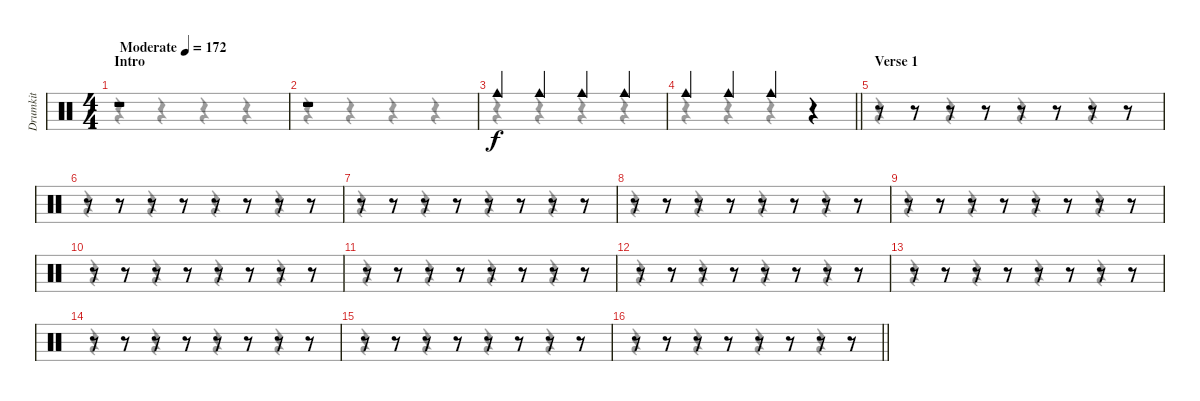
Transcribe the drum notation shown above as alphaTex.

\track ("Drumkit" "Drumkit") {instrument percussion}
\staff {score}
\articulation defaults
\voice
\ts (4 4)
\section ("" "Intro")
\tempo (172 "Moderate")
\clef neutral
\ks c
r.1{dy f} |
r.1 |
"Cowbell medium (hit)".4 "Cowbell medium (hit)".4 "Cowbell medium (hit)".4 "Cowbell medium (hit)".4 |
\barLineRight lightlight "Cowbell medium (hit)".4 "Cowbell medium (hit)".4 "Cowbell medium (hit)".4
r.4 |
\section ("" "Verse 1")
r.8 r.8 r.8 r.8 r.8 r.8 r.8 r.8 |
r.8 r.8 r.8 r.8 r.8 r.8 r.8 r.8 |
r.8 r.8 r.8 r.8 r.8 r.8 r.8 r.8 |
r.8 r.8 r.8 r.8 r.8 r.8 r.8 r.8 |
r.8 r.8 r.8 r.8 r.8 r.8 r.8 r.8 |
r.8 r.8 r.8 r.8 r.8 r.8 r.8 r.8 |
r.8 r.8 r.8 r.8 r.8 r.8 r.8 r.8 |
r.8 r.8 r.8 r.8 r.8 r.8 r.8 r.8 |
r.8 r.8 r.8 r.8 r.8 r.8 r.8 r.8 |
r.8 r.8 r.8 r.8 r.8 r.8 r.8 r.8 |
r.8 r.8 r.8 r.8 r.8 r.8 r.8 r.8 |
\barLineRight lightlight
r.8 r.8 r.8 r.8 r.8 r.8 r.8 r.8
\voice
\clef neutral
\ottava regular
\simile none
\ks c
r.4{dy f} r.4 r.4 r.4 |
r.4 r.4 r.4 r.4 |
r.4 r.4 r.4 r.4 |
\barLineRight lightlight
r.4 r.4 r.4 r.4 |
r.4 r.4 r.4 r.4 |
r.4 r.4 r.4 r.4 |
r.4 r.4 r.4 r.4 |
r.4 r.4 r.4 r.4 |
r.4 r.4 r.4 r.4 |
r.4 r.4 r.4 r.4 |
r.4 r.4 r.4 r.4 |
r.4 r.4 r.4 r.4 |
r.4 r.4 r.4 r.4 |
r.4 r.4 r.4 r.4 |
r.4 r.4 r.4 r.4 |
\barLineRight lightlight
r.4 r.4 r.4 r.4
